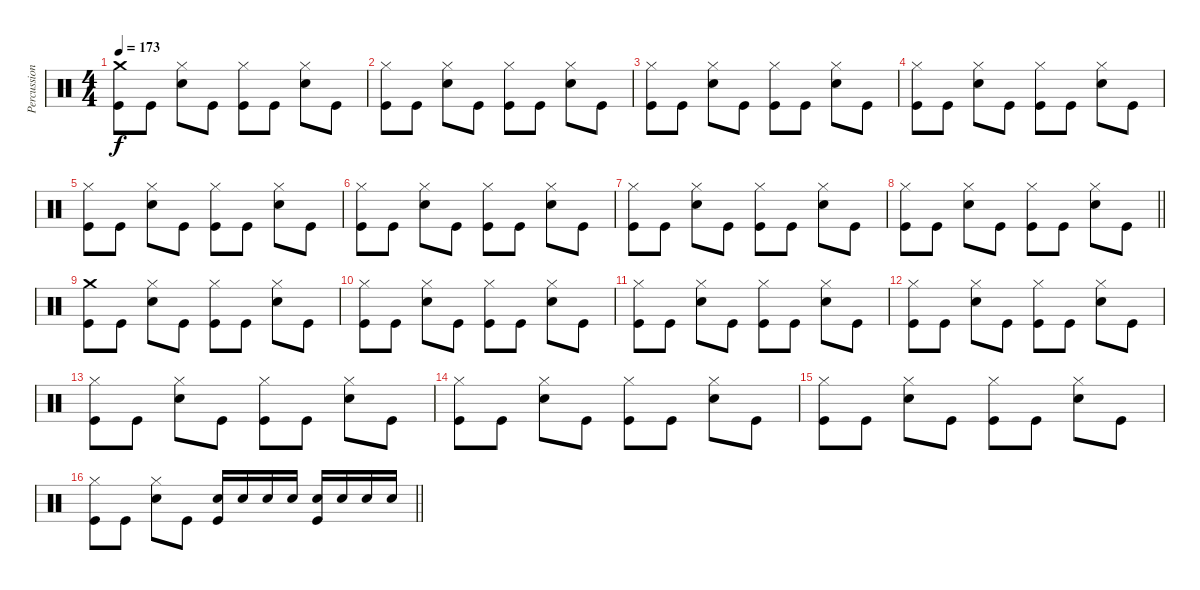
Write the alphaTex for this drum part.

\track ("Percussion" "Percussion") {instrument percussion}
\staff {score}
\articulation defaults
\ts (4 4)
\tempo 173
\clef neutral
\ks c
("Crash medium (hit)" "Kick (hit)").8{dy f} "Kick (hit)".8 ("Hi-Hat (closed)" "Electric Snare (hit)").8 "Kick (hit)".8 ("Hi-Hat (closed)" "Kick (hit)").8 "Kick (hit)".8 ("Hi-Hat (closed)" "Electric Snare (hit)").8 "Kick (hit)".8 |
("Hi-Hat (closed)" "Kick (hit)").8 "Kick (hit)".8 ("Hi-Hat (closed)" "Electric Snare (hit)").8 "Kick (hit)".8 ("Hi-Hat (closed)" "Kick (hit)").8 "Kick (hit)".8 ("Hi-Hat (closed)" "Electric Snare (hit)").8 "Kick (hit)".8 |
("Hi-Hat (closed)" "Kick (hit)").8 "Kick (hit)".8 ("Hi-Hat (closed)" "Electric Snare (hit)").8 "Kick (hit)".8 ("Hi-Hat (closed)" "Kick (hit)").8 "Kick (hit)".8 ("Hi-Hat (closed)" "Electric Snare (hit)").8 "Kick (hit)".8 |
("Hi-Hat (closed)" "Kick (hit)").8 "Kick (hit)".8 ("Hi-Hat (closed)" "Electric Snare (hit)").8 "Kick (hit)".8 ("Hi-Hat (closed)" "Kick (hit)").8 "Kick (hit)".8 ("Hi-Hat (closed)" "Electric Snare (hit)").8 "Kick (hit)".8 |
("Hi-Hat (closed)" "Kick (hit)").8 "Kick (hit)".8 ("Hi-Hat (closed)" "Electric Snare (hit)").8 "Kick (hit)".8 ("Hi-Hat (closed)" "Kick (hit)").8 "Kick (hit)".8 ("Hi-Hat (closed)" "Electric Snare (hit)").8 "Kick (hit)".8 |
("Hi-Hat (closed)" "Kick (hit)").8 "Kick (hit)".8 ("Hi-Hat (closed)" "Electric Snare (hit)").8 "Kick (hit)".8 ("Hi-Hat (closed)" "Kick (hit)").8 "Kick (hit)".8 ("Hi-Hat (closed)" "Electric Snare (hit)").8 "Kick (hit)".8 |
("Hi-Hat (closed)" "Kick (hit)").8 "Kick (hit)".8 ("Hi-Hat (closed)" "Electric Snare (hit)").8 "Kick (hit)".8 ("Hi-Hat (closed)" "Kick (hit)").8 "Kick (hit)".8 ("Hi-Hat (closed)" "Electric Snare (hit)").8 "Kick (hit)".8 |
\barLineRight lightlight
("Hi-Hat (closed)" "Kick (hit)").8 "Kick (hit)".8 ("Hi-Hat (closed)" "Electric Snare (hit)").8 "Kick (hit)".8 ("Hi-Hat (closed)" "Kick (hit)").8 "Kick (hit)".8 ("Hi-Hat (closed)" "Electric Snare (hit)").8 "Kick (hit)".8 |
("Crash medium (hit)" "Kick (hit)").8 "Kick (hit)".8 ("Hi-Hat (closed)" "Electric Snare (hit)").8 "Kick (hit)".8 ("Hi-Hat (closed)" "Kick (hit)").8 "Kick (hit)".8 ("Hi-Hat (closed)" "Electric Snare (hit)").8 "Kick (hit)".8 |
("Hi-Hat (closed)" "Kick (hit)").8 "Kick (hit)".8 ("Hi-Hat (closed)" "Electric Snare (hit)").8 "Kick (hit)".8 ("Hi-Hat (closed)" "Kick (hit)").8 "Kick (hit)".8 ("Hi-Hat (closed)" "Electric Snare (hit)").8 "Kick (hit)".8 |
("Hi-Hat (closed)" "Kick (hit)").8 "Kick (hit)".8 ("Hi-Hat (closed)" "Electric Snare (hit)").8 "Kick (hit)".8 ("Hi-Hat (closed)" "Kick (hit)").8 "Kick (hit)".8 ("Hi-Hat (closed)" "Electric Snare (hit)").8 "Kick (hit)".8 |
("Hi-Hat (closed)" "Kick (hit)").8 "Kick (hit)".8 ("Hi-Hat (closed)" "Electric Snare (hit)").8 "Kick (hit)".8 ("Hi-Hat (closed)" "Kick (hit)").8 "Kick (hit)".8 ("Hi-Hat (closed)" "Electric Snare (hit)").8 "Kick (hit)".8 |
("Hi-Hat (closed)" "Kick (hit)").8 "Kick (hit)".8 ("Hi-Hat (closed)" "Electric Snare (hit)").8 "Kick (hit)".8 ("Hi-Hat (closed)" "Kick (hit)").8 "Kick (hit)".8 ("Hi-Hat (closed)" "Electric Snare (hit)").8 "Kick (hit)".8 |
("Hi-Hat (closed)" "Kick (hit)").8 "Kick (hit)".8 ("Hi-Hat (closed)" "Electric Snare (hit)").8 "Kick (hit)".8 ("Hi-Hat (closed)" "Kick (hit)").8 "Kick (hit)".8 ("Hi-Hat (closed)" "Electric Snare (hit)").8 "Kick (hit)".8 |
("Hi-Hat (closed)" "Kick (hit)").8 "Kick (hit)".8 ("Hi-Hat (closed)" "Electric Snare (hit)").8 "Kick (hit)".8 ("Hi-Hat (closed)" "Kick (hit)").8 "Kick (hit)".8 ("Hi-Hat (closed)" "Electric Snare (hit)").8 "Kick (hit)".8 |
\barLineRight lightlight
("Hi-Hat (closed)" "Kick (hit)").8 "Kick (hit)".8 ("Hi-Hat (closed)" "Electric Snare (hit)").8 "Kick (hit)".8 ("Electric Snare (hit)" "Kick (hit)").16 "Electric Snare (hit)".16 "Electric Snare (hit)".16 "Electric Snare (hit)".16 ("Electric Snare (hit)" "Kick (hit)").16 "Electric Snare (hit)".16 "Electric Snare (hit)".16 "Electric Snare (hit)".16
